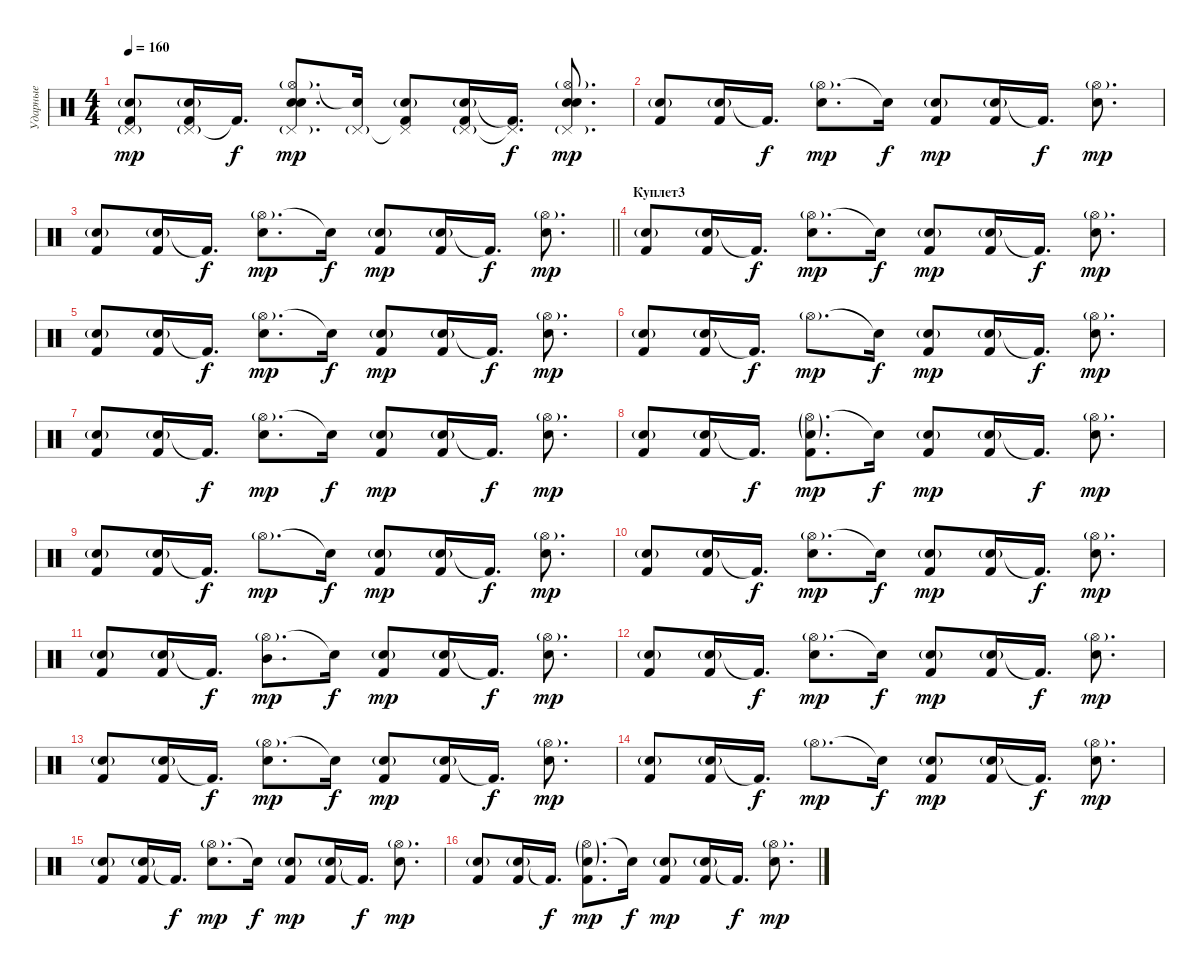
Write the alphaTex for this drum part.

\track ("Ударные" "Ударные") {instrument percussion}
\staff {score}
\articulation defaults
\ts (4 4)
\tempo 160
\clef neutral
\ks c
("Pedal Hi-Hat (hit)"{g} "Snare (hit) 2"{g} "Kick (hit) 2").8{dy mp} ("Pedal Hi-Hat (hit)"{g} "Snare (hit) 2"{g} "Kick (hit) 2").16 "Kick (hit) 2"{t}.16{d dy f} ("Pedal Hi-Hat (hit)"{g} "Hi-Hat (open)"{g} "Electric Snare (hit)" "Snare (hit) 2").8{d dy mp} ("Pedal Hi-Hat (hit)"{g} "Electric Snare (hit)"{t}).16 ("Pedal Hi-Hat (hit)"{t} "Snare (hit) 2"{g} "Kick (hit) 2").8 ("Pedal Hi-Hat (hit)"{g} "Snare (hit) 2"{g} "Kick (hit) 2").16 ("Pedal Hi-Hat (hit)"{t} "Kick (hit) 2"{t}).16{d dy f} ("Hi-Hat (open)"{g} "Pedal Hi-Hat (hit)"{g} "Snare (hit) 2" "Electric Snare (hit)").8{d dy mp} |
("Snare (hit) 2"{g} "Kick (hit) 2").8 ("Snare (hit) 2"{g} "Kick (hit) 2").16 "Kick (hit) 2"{t}.16{d dy f} ("Hi-Hat (open)"{g} "Snare (hit) 2").8{d dy mp} "Electric Snare (hit)"{t}.16{dy f} ("Snare (hit) 2"{g} "Kick (hit) 2").8{dy mp} ("Snare (hit) 2"{g} "Kick (hit) 2").16 "Kick (hit) 2"{t}.16{d dy f} ("Hi-Hat (open)"{g} "Electric Snare (hit)").8{d dy mp} |
\barLineRight lightlight
("Snare (hit) 2"{g} "Kick (hit) 2").8 ("Snare (hit) 2"{g} "Kick (hit) 2").16 "Kick (hit) 2"{t}.16{d dy f} ("Hi-Hat (open)"{g} "Snare (hit) 2").8{d dy mp} "Electric Snare (hit)"{t}.16{dy f} ("Snare (hit) 2"{g} "Kick (hit) 2").8{dy mp} ("Snare (hit) 2"{g} "Kick (hit) 2").16 "Kick (hit) 2"{t}.16{d dy f} ("Hi-Hat (open)"{g} "Electric Snare (hit)").8{d dy mp} |
\section ("" "Куплет3")
("Snare (hit) 2"{g} "Kick (hit) 2").8 ("Snare (hit) 2"{g} "Kick (hit) 2").16 "Kick (hit) 2"{t}.16{d dy f} ("Hi-Hat (open)"{g} "Snare (hit) 2").8{d dy mp} "Electric Snare (hit)"{t}.16{dy f} ("Snare (hit) 2"{g} "Kick (hit) 2").8{dy mp} ("Snare (hit) 2"{g} "Kick (hit) 2").16 "Kick (hit) 2"{t}.16{d dy f} ("Hi-Hat (open)"{g} "Electric Snare (hit)").8{d dy mp} |
("Snare (hit) 2"{g} "Kick (hit) 2").8 ("Snare (hit) 2"{g} "Kick (hit) 2").16 "Kick (hit) 2"{t}.16{d dy f} ("Hi-Hat (open)"{g} "Snare (hit) 2").8{d dy mp} "Electric Snare (hit)"{t}.16{dy f} ("Snare (hit) 2"{g} "Kick (hit) 2").8{dy mp} ("Snare (hit) 2"{g} "Kick (hit) 2").16 "Kick (hit) 2"{t}.16{d dy f} ("Hi-Hat (open)"{g} "Electric Snare (hit)").8{d dy mp} |
("Snare (hit) 2"{g} "Kick (hit) 2").8 ("Snare (hit) 2"{g} "Kick (hit) 2").16 "Kick (hit) 2"{t}.16{d dy f} "Hi-Hat (open)"{g}.8{d dy mp} "Electric Snare (hit)"{t}.16{dy f} ("Snare (hit) 2"{g} "Kick (hit) 2").8{dy mp} ("Snare (hit) 2"{g} "Kick (hit) 2").16 "Kick (hit) 2"{t}.16{d dy f} ("Hi-Hat (open)"{g} "Electric Snare (hit)").8{d dy mp} |
("Snare (hit) 2"{g} "Kick (hit) 2").8 ("Snare (hit) 2"{g} "Kick (hit) 2").16 "Kick (hit) 2"{t}.16{d dy f} ("Hi-Hat (open)"{g} "Snare (hit) 2").8{d dy mp} "Electric Snare (hit)"{t}.16{dy f} ("Snare (hit) 2"{g} "Kick (hit) 2").8{dy mp} ("Snare (hit) 2"{g} "Kick (hit) 2").16 "Kick (hit) 2"{t}.16{d dy f} ("Hi-Hat (open)"{g} "Electric Snare (hit)").8{d dy mp} |
("Snare (hit) 2"{g} "Kick (hit) 2").8 ("Snare (hit) 2"{g} "Kick (hit) 2").16 "Kick (hit) 2"{t}.16{d dy f} ("Hi-Hat (open)"{g} "Kick (hit) 2" "Snare (hit) 2"{g}).8{d dy mp} "Electric Snare (hit)"{t}.16{dy f} ("Snare (hit) 2"{g} "Kick (hit) 2").8{dy mp} ("Snare (hit) 2"{g} "Kick (hit) 2").16 "Kick (hit) 2"{t}.16{d dy f} ("Hi-Hat (open)"{g} "Electric Snare (hit)").8{d dy mp} |
("Snare (hit) 2"{g} "Kick (hit) 2").8 ("Snare (hit) 2"{g} "Kick (hit) 2").16 "Kick (hit) 2"{t}.16{d dy f} "Hi-Hat (open)"{g}.8{d dy mp} "Electric Snare (hit)"{t}.16{dy f} ("Snare (hit) 2"{g} "Kick (hit) 2").8{dy mp} ("Snare (hit) 2"{g} "Kick (hit) 2").16 "Kick (hit) 2"{t}.16{d dy f} ("Hi-Hat (open)"{g} "Electric Snare (hit)").8{d dy mp} |
("Snare (hit) 2"{g} "Kick (hit) 2").8 ("Snare (hit) 2"{g} "Kick (hit) 2").16 "Kick (hit) 2"{t}.16{d dy f} ("Hi-Hat (open)"{g} "Snare (hit) 2").8{d dy mp} "Electric Snare (hit)"{t}.16{dy f} ("Snare (hit) 2"{g} "Kick (hit) 2").8{dy mp} ("Snare (hit) 2"{g} "Kick (hit) 2").16 "Kick (hit) 2"{t}.16{d dy f} ("Hi-Hat (open)"{g} "Electric Snare (hit)").8{d dy mp} |
("Snare (hit) 2"{g} "Kick (hit) 2").8 ("Snare (hit) 2"{g} "Kick (hit) 2").16 "Kick (hit) 2"{t}.16{d dy f} ("Hi-Hat (open)"{g} "Mid Tom (hit)").8{d dy mp} "Electric Snare (hit)"{t}.16{dy f} ("Snare (hit) 2"{g} "Kick (hit) 2").8{dy mp} ("Snare (hit) 2"{g} "Kick (hit) 2").16 "Kick (hit) 2"{t}.16{d dy f} ("Hi-Hat (open)"{g} "Electric Snare (hit)").8{d dy mp} |
("Snare (hit) 2"{g} "Kick (hit) 2").8 ("Snare (hit) 2"{g} "Kick (hit) 2").16 "Kick (hit) 2"{t}.16{d dy f} ("Hi-Hat (open)"{g} "Snare (hit) 2").8{d dy mp} "Electric Snare (hit)"{t}.16{dy f} ("Snare (hit) 2"{g} "Kick (hit) 2").8{dy mp} ("Snare (hit) 2"{g} "Kick (hit) 2").16 "Kick (hit) 2"{t}.16{d dy f} ("Hi-Hat (open)"{g} "Electric Snare (hit)").8{d dy mp} |
("Snare (hit) 2"{g} "Kick (hit) 2").8 ("Snare (hit) 2"{g} "Kick (hit) 2").16 "Kick (hit) 2"{t}.16{d dy f} ("Hi-Hat (open)"{g} "Snare (hit) 2").8{d dy mp} "Electric Snare (hit)"{t}.16{dy f} ("Snare (hit) 2"{g} "Kick (hit) 2").8{dy mp} ("Snare (hit) 2"{g} "Kick (hit) 2").16 "Kick (hit) 2"{t}.16{d dy f} ("Hi-Hat (open)"{g} "Electric Snare (hit)").8{d dy mp} |
("Snare (hit) 2"{g} "Kick (hit) 2").8 ("Snare (hit) 2"{g} "Kick (hit) 2").16 "Kick (hit) 2"{t}.16{d dy f} "Hi-Hat (open)"{g}.8{d dy mp} "Electric Snare (hit)"{t}.16{dy f} ("Snare (hit) 2"{g} "Kick (hit) 2").8{dy mp} ("Snare (hit) 2"{g} "Kick (hit) 2").16 "Kick (hit) 2"{t}.16{d dy f} ("Hi-Hat (open)"{g} "Electric Snare (hit)").8{d dy mp} |
("Snare (hit) 2"{g} "Kick (hit) 2").8 ("Snare (hit) 2"{g} "Kick (hit) 2").16 "Kick (hit) 2"{t}.16{d dy f} ("Hi-Hat (open)"{g} "Snare (hit) 2").8{d dy mp} "Electric Snare (hit)"{t}.16{dy f} ("Snare (hit) 2"{g} "Kick (hit) 2").8{dy mp} ("Snare (hit) 2"{g} "Kick (hit) 2").16 "Kick (hit) 2"{t}.16{d dy f} ("Hi-Hat (open)"{g} "Electric Snare (hit)").8{d dy mp} |
("Snare (hit) 2"{g} "Kick (hit) 2").8 ("Snare (hit) 2"{g} "Kick (hit) 2").16 "Kick (hit) 2"{t}.16{d dy f} ("Hi-Hat (open)"{g} "Kick (hit) 2" "Snare (hit) 2"{g}).8{d dy mp} "Electric Snare (hit)"{t}.16{dy f} ("Snare (hit) 2"{g} "Kick (hit) 2").8{dy mp} ("Snare (hit) 2"{g} "Kick (hit) 2").16 "Kick (hit) 2"{t}.16{d dy f} ("Hi-Hat (open)"{g} "Electric Snare (hit)").8{d dy mp}
